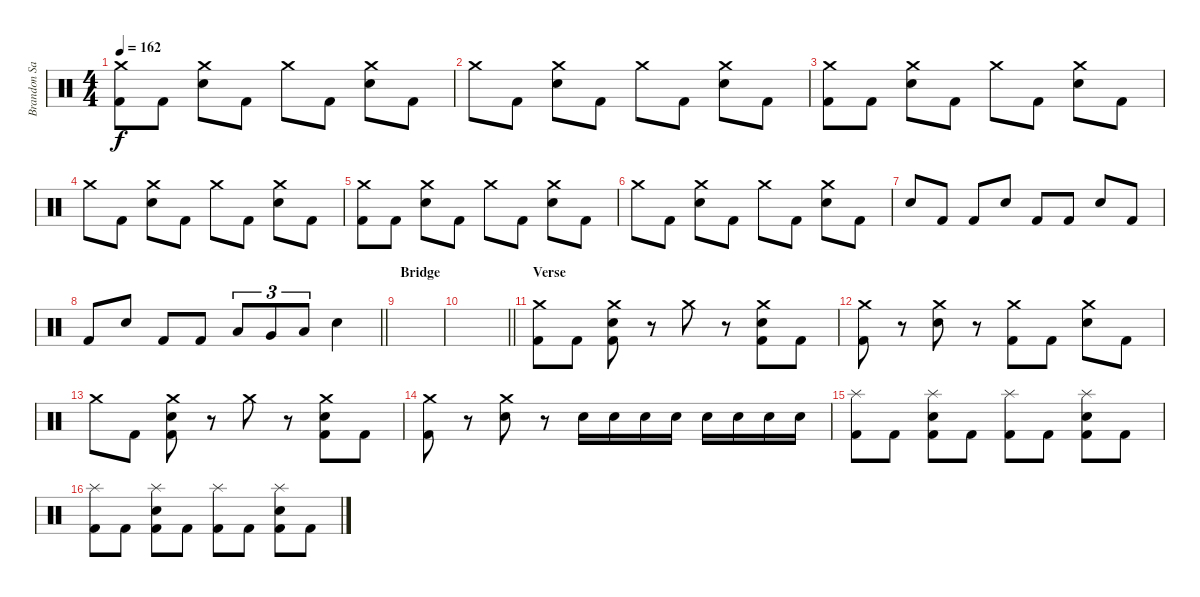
\track ("Brandon Saller" "Brandon Sa") {instrument percussion}
\staff {score}
\articulation defaults
\ts (4 4)
\tempo 162
\clef neutral
\ks c
("Crash medium (hit)" "Kick (hit) 2").8{dy f} "Kick (hit) 2".8 ("Crash medium (hit)" "Electric Snare (hit)").8 "Kick (hit) 2".8 "Crash medium (hit)".8 "Kick (hit) 2".8 ("Crash medium (hit)" "Electric Snare (hit)").8 "Kick (hit) 2".8 |
"Crash medium (hit)".8 "Kick (hit) 2".8 ("Crash medium (hit)" "Electric Snare (hit)").8 "Kick (hit) 2".8 "Crash medium (hit)".8 "Kick (hit) 2".8 ("Crash medium (hit)" "Electric Snare (hit)").8 "Kick (hit) 2".8 |
("Crash medium (hit)" "Kick (hit) 2").8 "Kick (hit) 2".8 ("Crash medium (hit)" "Electric Snare (hit)").8 "Kick (hit) 2".8 "Crash medium (hit)".8 "Kick (hit) 2".8 ("Crash medium (hit)" "Electric Snare (hit)").8 "Kick (hit) 2".8 |
"Crash medium (hit)".8 "Kick (hit) 2".8 ("Crash medium (hit)" "Electric Snare (hit)").8 "Kick (hit) 2".8 "Crash medium (hit)".8 "Kick (hit) 2".8 ("Crash medium (hit)" "Electric Snare (hit)").8 "Kick (hit) 2".8 |
("Crash medium (hit)" "Kick (hit) 2").8 "Kick (hit) 2".8 ("Crash medium (hit)" "Electric Snare (hit)").8 "Kick (hit) 2".8 "Crash medium (hit)".8 "Kick (hit) 2".8 ("Crash medium (hit)" "Electric Snare (hit)").8 "Kick (hit) 2".8 |
"Crash medium (hit)".8 "Kick (hit) 2".8 ("Crash medium (hit)" "Electric Snare (hit)").8 "Kick (hit) 2".8 "Crash medium (hit)".8 "Kick (hit) 2".8 ("Crash medium (hit)" "Electric Snare (hit)").8 "Kick (hit) 2".8 |
"Electric Snare (hit)".8 "Kick (hit) 2".8 "Kick (hit) 2".8 "Electric Snare (hit)".8 "Kick (hit) 2".8 "Kick (hit) 2".8 "Electric Snare (hit)".8 "Kick (hit) 2".8 |
\barLineRight lightlight "Kick (hit) 2".8 "Electric Snare (hit)".8 "Kick (hit) 2".8 "Kick (hit) 2".8 "Low Tom (hit)".8{tu (3 2)} "Very Low Tom (hit)".8{tu (3 2)} "Low Floor Tom (hit)".8{tu (3 2)} "Electric Snare (hit)".4
|
\section ("" "Bridge")
|
\barLineRight lightlight
|
\section ("" "Verse")
("Crash medium (hit)" "Kick (hit) 2").8 "Kick (hit) 2".8 ("Crash medium (hit)" "Electric Snare (hit)" "Kick (hit) 2").8 r.8 "Crash medium (hit)".8 r.8 ("Crash medium (hit)" "Electric Snare (hit)" "Kick (hit) 2").8 "Kick (hit) 2".8 |
("Crash medium (hit)" "Kick (hit) 2").8 r.8 ("Crash medium (hit)" "Electric Snare (hit)").8 r.8 ("Crash medium (hit)" "Kick (hit) 2").8 "Kick (hit) 2".8 ("Crash medium (hit)" "Electric Snare (hit)").8 "Kick (hit) 2".8 |
"Crash medium (hit)".8 "Kick (hit) 2".8 ("Crash medium (hit)" "Electric Snare (hit)" "Kick (hit) 2").8 r.8 "Crash medium (hit)".8 r.8 ("Crash medium (hit)" "Electric Snare (hit)" "Kick (hit) 2").8 "Kick (hit) 2".8 |
("Crash medium (hit)" "Kick (hit) 2").8 r.8 ("Crash medium (hit)" "Electric Snare (hit)").8 r.8 "Electric Snare (hit)".16 "Electric Snare (hit)".16 "Electric Snare (hit)".16 "Electric Snare (hit)".16 "Electric Snare (hit)".16 "Electric Snare (hit)".16 "Electric Snare (hit)".16 "Electric Snare (hit)".16 |
("Splash (hit)" "Kick (hit) 2").8 "Kick (hit) 2".8 ("Splash (hit)" "Electric Snare (hit)" "Kick (hit) 2").8 "Kick (hit) 2".8 ("Splash (hit)" "Kick (hit) 2").8 "Kick (hit) 2".8 ("Splash (hit)" "Electric Snare (hit)" "Kick (hit) 2").8 "Kick (hit) 2".8 |
("Splash (hit)" "Kick (hit) 2").8 "Kick (hit) 2".8 ("Splash (hit)" "Electric Snare (hit)" "Kick (hit) 2").8 "Kick (hit) 2".8 ("Splash (hit)" "Kick (hit) 2").8 "Kick (hit) 2".8 ("Splash (hit)" "Electric Snare (hit)" "Kick (hit) 2").8 "Kick (hit) 2".8
